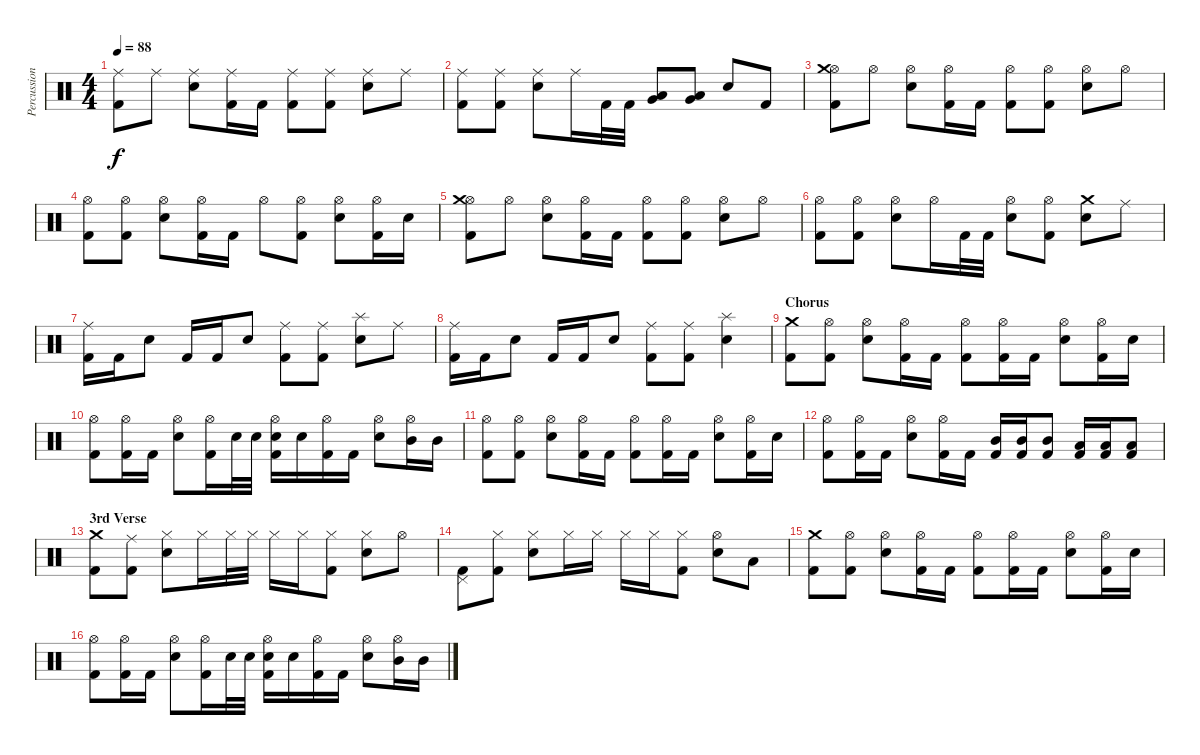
\track ("Percussion" "Percussion") {instrument percussion}
\staff {score}
\articulation defaults
\ts (4 4)
\tempo 88
\clef neutral
\ks c
("Kick (hit) 2" "Ride (middle)").8{dy f} "Ride (middle)".8 ("Electric Snare (hit)" "Ride (middle)").8 ("Kick (hit) 2" "Ride (middle)").16 "Kick (hit) 2".16 ("Kick (hit) 2" "Ride (middle)").8 ("Kick (hit) 2" "Ride (middle)").8 ("Electric Snare (hit)" "Ride (middle)").8 "Ride (middle)".8 |
("Kick (hit) 2" "Ride (middle)").8 ("Kick (hit) 2" "Ride (middle)").8 ("Electric Snare (hit)" "Ride (middle)").8 "Ride (middle)".16 "Kick (hit) 2".32 "Kick (hit) 2".32 ("Low Tom (hit)" "Very Low Tom (hit)").8 ("Low Tom (hit)" "Very Low Tom (hit)").8 "Electric Snare (hit)".8 "Kick (hit) 2".8 |
("Kick (hit) 2" "Hi-Hat (open)" "Crash medium (hit)").8 "Hi-Hat (open)".8 ("Electric Snare (hit)" "Hi-Hat (open)").8 ("Kick (hit) 2" "Hi-Hat (open)").16 "Kick (hit) 2".16 ("Kick (hit) 2" "Hi-Hat (open)").8 ("Kick (hit) 2" "Hi-Hat (open)").8 ("Electric Snare (hit)" "Hi-Hat (open)").8 "Hi-Hat (open)".8 |
("Kick (hit) 2" "Hi-Hat (open)").8 ("Kick (hit) 2" "Hi-Hat (open)").8 ("Electric Snare (hit)" "Hi-Hat (open)").8 ("Kick (hit) 2" "Hi-Hat (open)").16 "Kick (hit) 2".16 "Hi-Hat (open)".8 ("Kick (hit) 2" "Hi-Hat (open)").8 ("Electric Snare (hit)" "Hi-Hat (open)").8 ("Kick (hit) 2" "Hi-Hat (open)").16 "Electric Snare (hit)".16 |
("Kick (hit) 2" "Hi-Hat (open)" "Crash medium (hit)").8 "Hi-Hat (open)".8 ("Electric Snare (hit)" "Hi-Hat (open)").8 ("Kick (hit) 2" "Hi-Hat (open)").16 "Kick (hit) 2".16 ("Kick (hit) 2" "Hi-Hat (open)").8 ("Kick (hit) 2" "Hi-Hat (open)").8 ("Electric Snare (hit)" "Hi-Hat (open)").8 "Hi-Hat (open)".8 |
("Kick (hit) 2" "Hi-Hat (open)").8 ("Kick (hit) 2" "Hi-Hat (open)").8 ("Electric Snare (hit)" "Hi-Hat (open)").8 "Hi-Hat (open)".16 "Kick (hit) 2".32 "Kick (hit) 2".32 ("Electric Snare (hit)" "Hi-Hat (open)").8 ("Kick (hit) 2" "Hi-Hat (open)").8 ("Electric Snare (hit)" "Crash medium (hit)").8 "Ride (middle)".8 |
("Kick (hit) 2" "Ride (middle)").16 "Kick (hit) 2".16 "Electric Snare (hit)".8 "Kick (hit) 2".16 "Kick (hit) 2".16 "Electric Snare (hit)".8 ("Kick (hit) 2" "Ride (middle)").8 ("Kick (hit) 2" "Ride (middle)").8 ("Electric Snare (hit)" "Splash (hit)").8 "Ride (middle)".8 |
("Kick (hit) 2" "Ride (middle)").16 "Kick (hit) 2".16 "Electric Snare (hit)".8 "Kick (hit) 2".16 "Kick (hit) 2".16 "Electric Snare (hit)".8 ("Kick (hit) 2" "Ride (middle)").8 ("Kick (hit) 2" "Ride (middle)").8 ("Electric Snare (hit)" "Splash (hit)").4 |
\section ("" "Chorus")
("Kick (hit) 2" "Crash medium (hit)").8 ("Kick (hit) 2" "Hi-Hat (open)").8 ("Electric Snare (hit)" "Hi-Hat (open)").8 ("Kick (hit) 2" "Hi-Hat (open)").16 "Kick (hit) 2".16 ("Kick (hit) 2" "Hi-Hat (open)").8 ("Kick (hit) 2" "Hi-Hat (open)").16 "Kick (hit) 2".16 ("Electric Snare (hit)" "Hi-Hat (open)").8 ("Kick (hit) 2" "Hi-Hat (open)").16 "Electric Snare (hit)".16 |
("Kick (hit) 2" "Hi-Hat (open)").8 ("Kick (hit) 2" "Hi-Hat (open)").16 "Kick (hit) 2".16 ("Electric Snare (hit)" "Hi-Hat (open)").8 ("Kick (hit) 2" "Hi-Hat (open)").16 "Electric Snare (hit)".32 "Electric Snare (hit)".32 ("Kick (hit) 2" "Electric Snare (hit)" "Hi-Hat (open)").16 "Electric Snare (hit)".16 ("Kick (hit) 2" "Hi-Hat (open)").16 "Kick (hit) 2".16 ("Electric Snare (hit)" "Hi-Hat (open)").8 ("Mid Tom (hit)" "Hi-Hat (open)").16 "Mid Tom (hit)".16 |
("Kick (hit) 2" "Hi-Hat (open)").8 ("Kick (hit) 2" "Hi-Hat (open)").8 ("Electric Snare (hit)" "Hi-Hat (open)").8 ("Kick (hit) 2" "Hi-Hat (open)").16 "Kick (hit) 2".16 ("Kick (hit) 2" "Hi-Hat (open)").8 ("Kick (hit) 2" "Hi-Hat (open)").16 "Kick (hit) 2".16 ("Electric Snare (hit)" "Hi-Hat (open)").8 ("Kick (hit) 2" "Hi-Hat (open)").16 "Electric Snare (hit)".16 |
("Kick (hit) 2" "Hi-Hat (open)").8 ("Kick (hit) 2" "Hi-Hat (open)").16 "Kick (hit) 2".16 ("Electric Snare (hit)" "Hi-Hat (open)").8 ("Kick (hit) 2" "Hi-Hat (open)").16 "Kick (hit) 2".16 ("Kick (hit) 2" "Mid Tom (hit)").16 ("Kick (hit) 2" "Mid Tom (hit)").16 ("Kick (hit) 2" "Mid Tom (hit)").8 ("Kick (hit) 2" "Low Tom (hit)").16 ("Kick (hit) 2" "Low Tom (hit)").16 ("Kick (hit) 2" "Low Tom (hit)").8 |
\section ("" "3rd Verse")
("Kick (hit) 2" "Crash medium (hit)").8 ("Kick (hit) 2" "Ride (middle)").8 ("Electric Snare (hit)" "Hi-Hat (closed)").8 "Hi-Hat (closed)".16 "Hi-Hat (closed)".32 "Hi-Hat (closed)".32 "Hi-Hat (closed)".16 "Hi-Hat (closed)".16 ("Kick (hit) 2" "Hi-Hat (closed)").8 ("Electric Snare (hit)" "Hi-Hat (closed)").8 "Hi-Hat (open)".8 |
("Kick (hit) 2" "Pedal Hi-Hat (hit)").8 ("Kick (hit) 2" "Hi-Hat (closed)").8 ("Electric Snare (hit)" "Hi-Hat (closed)").8 "Hi-Hat (closed)".16 "Hi-Hat (closed)".16 "Hi-Hat (closed)".16 "Hi-Hat (closed)".16 ("Kick (hit) 2" "Hi-Hat (closed)").8 ("Electric Snare (hit)" "Hi-Hat (open)").8 "Low Tom (hit)".8 |
("Kick (hit) 2" "Crash medium (hit)").8 ("Kick (hit) 2" "Hi-Hat (open)").8 ("Electric Snare (hit)" "Hi-Hat (open)").8 ("Kick (hit) 2" "Hi-Hat (open)").16 "Kick (hit) 2".16 ("Kick (hit) 2" "Hi-Hat (open)").8 ("Kick (hit) 2" "Hi-Hat (open)").16 "Kick (hit) 2".16 ("Electric Snare (hit)" "Hi-Hat (open)").8 ("Kick (hit) 2" "Hi-Hat (open)").16 "Electric Snare (hit)".16 |
("Kick (hit) 2" "Hi-Hat (open)").8 ("Kick (hit) 2" "Hi-Hat (open)").16 "Kick (hit) 2".16 ("Electric Snare (hit)" "Hi-Hat (open)").8 ("Kick (hit) 2" "Hi-Hat (open)").16 "Electric Snare (hit)".32 "Electric Snare (hit)".32 ("Kick (hit) 2" "Electric Snare (hit)" "Hi-Hat (open)").16 "Electric Snare (hit)".16 ("Kick (hit) 2" "Hi-Hat (open)").16 "Kick (hit) 2".16 ("Electric Snare (hit)" "Hi-Hat (open)").8 ("Mid Tom (hit)" "Hi-Hat (open)").16 "Mid Tom (hit)".16
